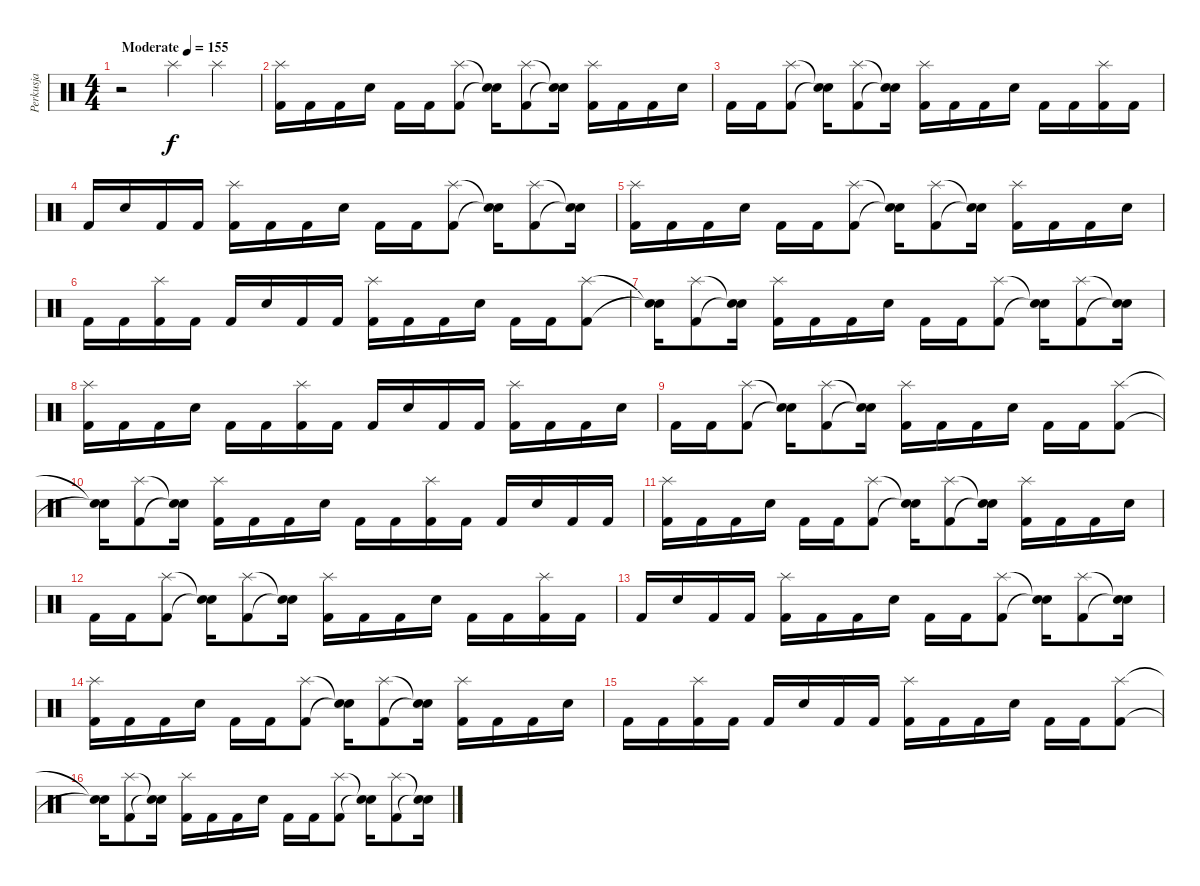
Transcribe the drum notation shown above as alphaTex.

\track ("Perkusja" "Perkusja") {instrument percussion}
\staff {score}
\articulation defaults
\ts (4 4)
\tempo (155 "Moderate")
\clef neutral
\ks c
r.2{dy f} "Splash (hit)".4 "Splash (hit)".4 |
("Splash (hit)" "Kick (hit) 2").16 "Kick (hit) 2".16 "Kick (hit) 2".16 "Snare (hit) 2".16 "Kick (hit) 2".16 "Kick (hit) 2".16 ("Splash (hit)" "Kick (hit) 2").8 ("Snare (hit)"{t} "Snare (hit)"{t}).16 ("Splash (hit)" "Kick (hit) 2").8 ("Snare (hit)"{t} "Snare (hit)"{t}).16 ("Splash (hit)" "Kick (hit) 2").16 "Kick (hit) 2".16 "Kick (hit) 2".16 "Snare (hit) 2".16 |
"Kick (hit) 2".16 "Kick (hit) 2".16 ("Splash (hit)" "Kick (hit) 2").8 ("Snare (hit)"{t} "Snare (hit)"{t}).16 ("Splash (hit)" "Kick (hit) 2").8 ("Snare (hit)"{t} "Snare (hit)"{t}).16 ("Splash (hit)" "Kick (hit) 2").16 "Kick (hit) 2".16 "Kick (hit) 2".16 "Snare (hit) 2".16 "Kick (hit) 2".16 "Kick (hit) 2".16 ("Splash (hit)" "Kick (hit) 2").16 "Kick (hit) 2".16 |
"Kick (hit) 2".16 "Snare (hit) 2".16 "Kick (hit) 2".16 "Kick (hit) 2".16 ("Splash (hit)" "Kick (hit) 2").16 "Kick (hit) 2".16 "Kick (hit) 2".16 "Snare (hit) 2".16 "Kick (hit) 2".16 "Kick (hit) 2".16 ("Splash (hit)" "Kick (hit) 2").8 ("Snare (hit)"{t} "Snare (hit)"{t}).16 ("Splash (hit)" "Kick (hit) 2").8 ("Snare (hit)"{t} "Snare (hit)"{t}).16 |
("Splash (hit)" "Kick (hit) 2").16 "Kick (hit) 2".16 "Kick (hit) 2".16 "Snare (hit) 2".16 "Kick (hit) 2".16 "Kick (hit) 2".16 ("Splash (hit)" "Kick (hit) 2").8 ("Snare (hit)"{t} "Snare (hit)"{t}).16 ("Splash (hit)" "Kick (hit) 2").8 ("Snare (hit)"{t} "Snare (hit)"{t}).16 ("Splash (hit)" "Kick (hit) 2").16 "Kick (hit) 2".16 "Kick (hit) 2".16 "Snare (hit) 2".16 |
"Kick (hit) 2".16 "Kick (hit) 2".16 ("Splash (hit)" "Kick (hit) 2").16 "Kick (hit) 2".16 "Kick (hit) 2".16 "Snare (hit) 2".16 "Kick (hit) 2".16 "Kick (hit) 2".16 ("Splash (hit)" "Kick (hit) 2").16 "Kick (hit) 2".16 "Kick (hit) 2".16 "Snare (hit) 2".16 "Kick (hit) 2".16 "Kick (hit) 2".16 ("Splash (hit)" "Kick (hit) 2").8 |
("Snare (hit)"{t} "Snare (hit)"{t}).16 ("Splash (hit)" "Kick (hit) 2").8 ("Snare (hit)"{t} "Snare (hit)"{t}).16 ("Splash (hit)" "Kick (hit) 2").16 "Kick (hit) 2".16 "Kick (hit) 2".16 "Snare (hit) 2".16 "Kick (hit) 2".16 "Kick (hit) 2".16 ("Splash (hit)" "Kick (hit) 2").8 ("Snare (hit)"{t} "Snare (hit)"{t}).16 ("Splash (hit)" "Kick (hit) 2").8 ("Snare (hit)"{t} "Snare (hit)"{t}).16 |
("Splash (hit)" "Kick (hit) 2").16 "Kick (hit) 2".16 "Kick (hit) 2".16 "Snare (hit) 2".16 "Kick (hit) 2".16 "Kick (hit) 2".16 ("Splash (hit)" "Kick (hit) 2").16 "Kick (hit) 2".16 "Kick (hit) 2".16 "Snare (hit) 2".16 "Kick (hit) 2".16 "Kick (hit) 2".16 ("Splash (hit)" "Kick (hit) 2").16 "Kick (hit) 2".16 "Kick (hit) 2".16 "Snare (hit) 2".16 |
"Kick (hit) 2".16 "Kick (hit) 2".16 ("Splash (hit)" "Kick (hit) 2").8 ("Snare (hit)"{t} "Snare (hit)"{t}).16 ("Splash (hit)" "Kick (hit) 2").8 ("Snare (hit)"{t} "Snare (hit)"{t}).16 ("Splash (hit)" "Kick (hit) 2").16 "Kick (hit) 2".16 "Kick (hit) 2".16 "Snare (hit) 2".16 "Kick (hit) 2".16 "Kick (hit) 2".16 ("Splash (hit)" "Kick (hit) 2").8 |
("Snare (hit)"{t} "Snare (hit)"{t}).16 ("Splash (hit)" "Kick (hit) 2").8 ("Snare (hit)"{t} "Snare (hit)"{t}).16 ("Splash (hit)" "Kick (hit) 2").16 "Kick (hit) 2".16 "Kick (hit) 2".16 "Snare (hit) 2".16 "Kick (hit) 2".16 "Kick (hit) 2".16 ("Splash (hit)" "Kick (hit) 2").16 "Kick (hit) 2".16 "Kick (hit) 2".16 "Snare (hit) 2".16 "Kick (hit) 2".16 "Kick (hit) 2".16 |
("Splash (hit)" "Kick (hit) 2").16 "Kick (hit) 2".16 "Kick (hit) 2".16 "Snare (hit) 2".16 "Kick (hit) 2".16 "Kick (hit) 2".16 ("Splash (hit)" "Kick (hit) 2").8 ("Snare (hit)"{t} "Snare (hit)"{t}).16 ("Splash (hit)" "Kick (hit) 2").8 ("Snare (hit)"{t} "Snare (hit)"{t}).16 ("Splash (hit)" "Kick (hit) 2").16 "Kick (hit) 2".16 "Kick (hit) 2".16 "Snare (hit) 2".16 |
"Kick (hit) 2".16 "Kick (hit) 2".16 ("Splash (hit)" "Kick (hit) 2").8 ("Snare (hit)"{t} "Snare (hit)"{t}).16 ("Splash (hit)" "Kick (hit) 2").8 ("Snare (hit)"{t} "Snare (hit)"{t}).16 ("Splash (hit)" "Kick (hit) 2").16 "Kick (hit) 2".16 "Kick (hit) 2".16 "Snare (hit) 2".16 "Kick (hit) 2".16 "Kick (hit) 2".16 ("Splash (hit)" "Kick (hit) 2").16 "Kick (hit) 2".16 |
"Kick (hit) 2".16 "Snare (hit) 2".16 "Kick (hit) 2".16 "Kick (hit) 2".16 ("Splash (hit)" "Kick (hit) 2").16 "Kick (hit) 2".16 "Kick (hit) 2".16 "Snare (hit) 2".16 "Kick (hit) 2".16 "Kick (hit) 2".16 ("Splash (hit)" "Kick (hit) 2").8 ("Snare (hit)"{t} "Snare (hit)"{t}).16 ("Splash (hit)" "Kick (hit) 2").8 ("Snare (hit)"{t} "Snare (hit)"{t}).16 |
("Splash (hit)" "Kick (hit) 2").16 "Kick (hit) 2".16 "Kick (hit) 2".16 "Snare (hit) 2".16 "Kick (hit) 2".16 "Kick (hit) 2".16 ("Splash (hit)" "Kick (hit) 2").8 ("Snare (hit)"{t} "Snare (hit)"{t}).16 ("Splash (hit)" "Kick (hit) 2").8 ("Snare (hit)"{t} "Snare (hit)"{t}).16 ("Splash (hit)" "Kick (hit) 2").16 "Kick (hit) 2".16 "Kick (hit) 2".16 "Snare (hit) 2".16 |
"Kick (hit) 2".16 "Kick (hit) 2".16 ("Splash (hit)" "Kick (hit) 2").16 "Kick (hit) 2".16 "Kick (hit) 2".16 "Snare (hit) 2".16 "Kick (hit) 2".16 "Kick (hit) 2".16 ("Splash (hit)" "Kick (hit) 2").16 "Kick (hit) 2".16 "Kick (hit) 2".16 "Snare (hit) 2".16 "Kick (hit) 2".16 "Kick (hit) 2".16 ("Splash (hit)" "Kick (hit) 2").8 |
("Snare (hit)"{t} "Snare (hit)"{t}).16 ("Splash (hit)" "Kick (hit) 2").8 ("Snare (hit)"{t} "Snare (hit)"{t}).16 ("Splash (hit)" "Kick (hit) 2").16 "Kick (hit) 2".16 "Kick (hit) 2".16 "Snare (hit) 2".16 "Kick (hit) 2".16 "Kick (hit) 2".16 ("Splash (hit)" "Kick (hit) 2").8 ("Snare (hit)"{t} "Snare (hit)"{t}).16 ("Splash (hit)" "Kick (hit) 2").8 ("Snare (hit)"{t} "Snare (hit)"{t}).16
